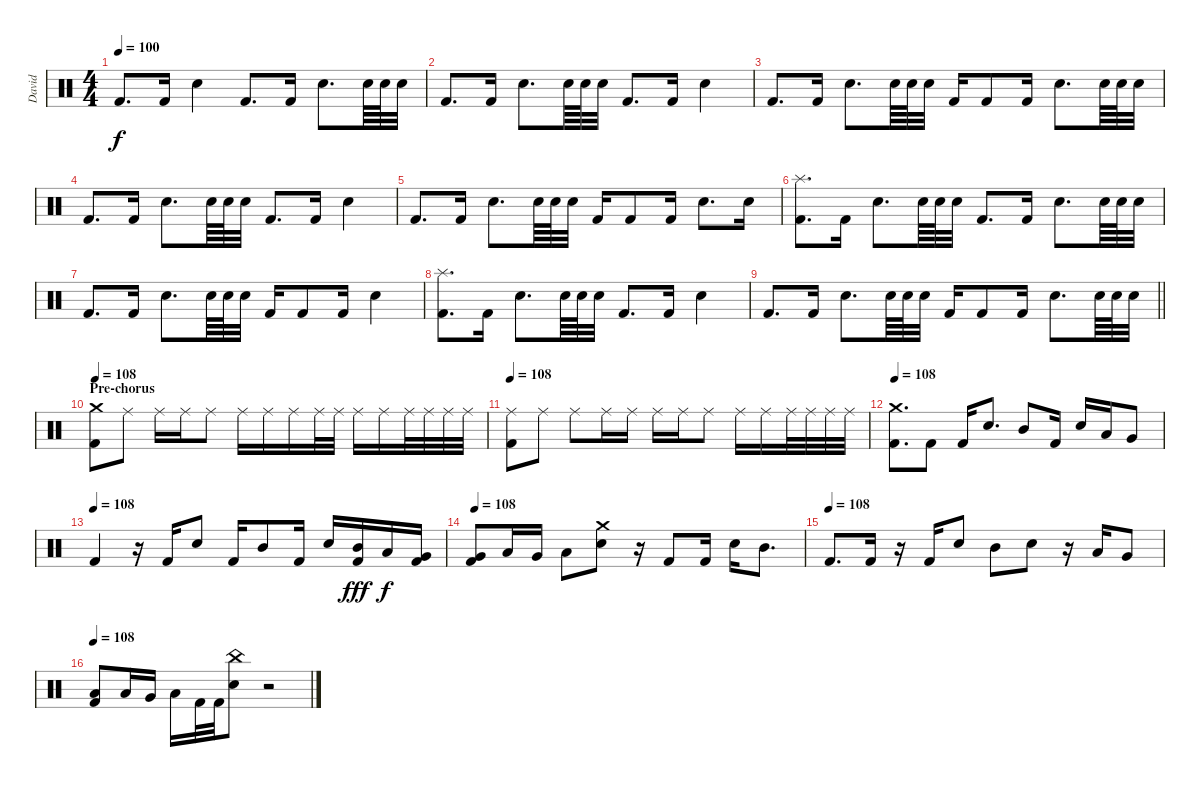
\track ("David" "David") {instrument percussion}
\staff {score}
\articulation defaults
\ts (4 4)
\tempo 100
\clef neutral
\ks c "Kick (hit) 2".8{d dy f} "Kick (hit) 2".16 "Snare (hit) 2".4 "Kick (hit) 2".8{d} "Kick (hit) 2".16 "Snare (hit) 2".8{d} "Snare (hit) 2".64 "Snare (hit) 2".64 "Snare (hit) 2".32
|
"Kick (hit) 2".8{d} "Kick (hit) 2".16 "Snare (hit) 2".8{d} "Snare (hit) 2".64 "Snare (hit) 2".64 "Snare (hit) 2".32 "Kick (hit) 2".8{d} "Kick (hit) 2".16 "Snare (hit) 2".4 |
"Kick (hit) 2".8{d} "Kick (hit) 2".16 "Snare (hit) 2".8{d} "Snare (hit) 2".64 "Snare (hit) 2".64 "Snare (hit) 2".32 "Kick (hit) 2".16 "Kick (hit) 2".8 "Kick (hit) 2".16 "Snare (hit) 2".8{d} "Snare (hit) 2".64 "Snare (hit) 2".64 "Snare (hit) 2".32 |
"Kick (hit) 2".8{d} "Kick (hit) 2".16 "Snare (hit) 2".8{d} "Snare (hit) 2".64 "Snare (hit) 2".64 "Snare (hit) 2".32 "Kick (hit) 2".8{d} "Kick (hit) 2".16 "Snare (hit) 2".4 |
"Kick (hit) 2".8{d} "Kick (hit) 2".16 "Snare (hit) 2".8{d} "Snare (hit) 2".64 "Snare (hit) 2".64 "Snare (hit) 2".32 "Kick (hit) 2".16 "Kick (hit) 2".8 "Kick (hit) 2".16 "Snare (hit) 2".8{d} "Snare (hit) 2".16 |
("Splash (hit)" "Kick (hit) 2").8{d} "Kick (hit) 2".16 "Snare (hit) 2".8{d} "Snare (hit) 2".64 "Snare (hit) 2".64 "Snare (hit) 2".32 "Kick (hit) 2".8{d} "Kick (hit) 2".16 "Snare (hit) 2".8{d} "Snare (hit) 2".64 "Snare (hit) 2".64 "Snare (hit) 2".32 |
"Kick (hit) 2".8{d} "Kick (hit) 2".16 "Snare (hit) 2".8{d} "Snare (hit) 2".64 "Snare (hit) 2".64 "Snare (hit) 2".32 "Kick (hit) 2".16 "Kick (hit) 2".8 "Kick (hit) 2".16 "Snare (hit) 2".4 |
("Splash (hit)" "Kick (hit) 2").8{d} "Kick (hit) 2".16 "Snare (hit) 2".8{d} "Snare (hit) 2".64 "Snare (hit) 2".64 "Snare (hit) 2".32 "Kick (hit) 2".8{d} "Kick (hit) 2".16 "Snare (hit) 2".4 |
\barLineRight lightlight "Kick (hit) 2".8{d} "Kick (hit) 2".16 "Snare (hit) 2".8{d} "Snare (hit) 2".64 "Snare (hit) 2".64 "Snare (hit) 2".32 "Kick (hit) 2".16 "Kick (hit) 2".8 "Kick (hit) 2".16 "Snare (hit) 2".8{d} "Snare (hit) 2".64 "Snare (hit) 2".64 "Snare (hit) 2".32
|
\section ("" "Pre-chorus")
\tempo 108
("Crash medium (hit)" "Kick (hit) 2").8{volume 14} "Ride (middle)".8 "Ride (middle)".16 "Ride (middle)".16 "Ride (middle)".8 "Ride (middle)".16 "Ride (middle)".16 "Ride (middle)".16 "Ride (middle)".32 "Ride (middle)".32 "Ride (middle)".16 "Ride (middle)".16 "Ride (middle)".32 "Ride (middle)".32 "Ride (middle)".32 "Ride (middle)".32 |
\tempo 108
("Ride (middle)" "Kick (hit) 2").8 "Ride (middle)".8 "Ride (middle)".8 "Ride (middle)".16 "Ride (middle)".16 "Ride (middle)".16 "Ride (middle)".16 "Ride (middle)".8 "Ride (middle)".16 "Ride (middle)".16 "Ride (middle)".32 "Ride (middle)".32 "Ride (middle)".32 "Ride (middle)".32 |
\tempo 108
("Crash medium (hit)" "Kick (hit) 2").8{d} "Kick (hit) 2".8 "Kick (hit) 2".16 "Snare (hit) 2".8{d} "Mid Tom (hit)".8 "Kick (hit) 2".16 "Snare (hit) 2".16 "Low Tom (hit)".16 "Very Low Tom (hit)".8 |
\tempo (108)
"Kick (hit) 2".4 r.16 "Kick (hit) 2".16 "Snare (hit) 2".8 "Kick (hit) 2".16 "Mid Tom (hit)".8 "Kick (hit) 2".16 "Snare (hit) 2".16 ("Mid Tom (hit)" "Kick (hit) 2").16{dy fff} "Low Tom (hit)".16{dy f} ("Very Low Tom (hit)" "Kick (hit) 2").16 |
\tempo 108
("Very Low Tom (hit)" "Kick (hit) 2").8 "Low Tom (hit)".16 "Very Low Tom (hit)".16 "Low Floor Tom (hit)".8 ("Crash medium (hit)" "Snare (hit) 2").8 r.16 "Kick (hit) 2".8 "Kick (hit) 2".16 "Snare (hit) 2".16 "Mid Tom (hit)".8{d} |
\tempo (108)
"Kick (hit) 2".8{d} "Kick (hit) 2".16 r.16 "Kick (hit) 2".16 "Snare (hit) 2".8 "Mid Tom (hit)".8 "Snare (hit) 2".8 r.16 "Low Tom (hit)".16 "Very Low Tom (hit)".8 |
\tempo 108
("Low Floor Tom (hit)" "Kick (hit) 2").8 "Low Tom (hit)".16 "Very Low Tom (hit)".16 "Low Floor Tom (hit)".16 "Kick (hit) 2".32 "Kick (hit) 2".32 ("China (hit)" "Snare (hit) 2").8 r.2
